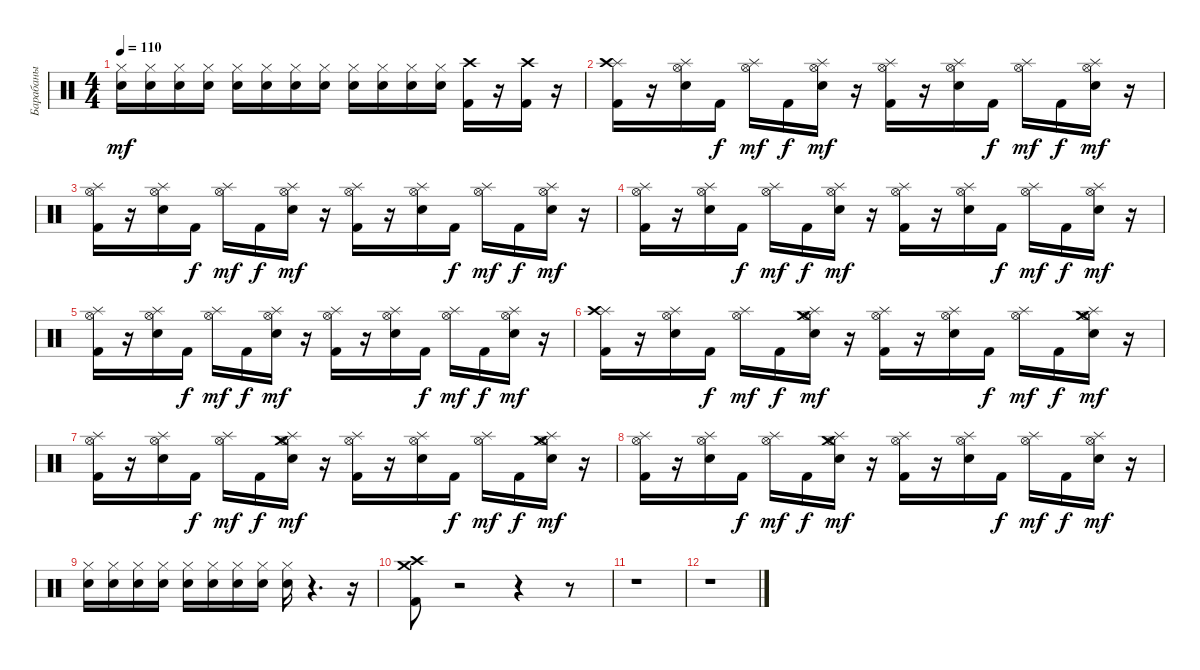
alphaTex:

\track ("Барабаны" "Барабаны") {instrument percussion}
\staff {score}
\articulation defaults
\ts (4 4)
\tempo 110
\clef neutral
\ks c
("Hi-Hat (closed)" "Electric Snare (hit)").16{dy mf} ("Hi-Hat (closed)" "Electric Snare (hit)").16 ("Hi-Hat (closed)" "Electric Snare (hit)").16 ("Hi-Hat (closed)" "Electric Snare (hit)").16 ("Hi-Hat (closed)" "Electric Snare (hit)").16 ("Hi-Hat (closed)" "Electric Snare (hit)").16 ("Hi-Hat (closed)" "Electric Snare (hit)").16 ("Hi-Hat (closed)" "Electric Snare (hit)").16 ("Hi-Hat (closed)" "Electric Snare (hit)").16 ("Hi-Hat (closed)" "Electric Snare (hit)").16 ("Hi-Hat (closed)" "Electric Snare (hit)").16 ("Hi-Hat (closed)" "Electric Snare (hit)").16 ("Crash high (hit)" "Kick (hit) 2").16 r.16 ("Crash high (hit)" "Kick (hit) 2").16 r.16 |
("Splash (hit)" "Crash high (hit)" "Kick (hit) 2").16 r.16 ("Hi-Hat (open)" "Splash (hit)" "Electric Snare (hit)").16 "Kick (hit) 2".16{dy f} ("Hi-Hat (open)" "Splash (hit)").16{dy mf} "Kick (hit) 2".16{dy f} ("Hi-Hat (open)" "Splash (hit)" "Electric Snare (hit)").16{dy mf} r.16 ("Hi-Hat (open)" "Splash (hit)" "Kick (hit) 2").16 r.16 ("Hi-Hat (open)" "Splash (hit)" "Electric Snare (hit)").16 "Kick (hit) 2".16{dy f} ("Hi-Hat (open)" "Splash (hit)").16{dy mf} "Kick (hit) 2".16{dy f} ("Hi-Hat (open)" "Splash (hit)" "Electric Snare (hit)").16{dy mf} r.16 |
("Hi-Hat (open)" "Splash (hit)" "Kick (hit) 2").16 r.16 ("Hi-Hat (open)" "Splash (hit)" "Electric Snare (hit)").16 "Kick (hit) 2".16{dy f} ("Hi-Hat (open)" "Splash (hit)").16{dy mf} "Kick (hit) 2".16{dy f} ("Hi-Hat (open)" "Splash (hit)" "Electric Snare (hit)").16{dy mf} r.16 ("Hi-Hat (open)" "Splash (hit)" "Kick (hit) 2").16 r.16 ("Hi-Hat (open)" "Splash (hit)" "Electric Snare (hit)").16 "Kick (hit) 2".16{dy f} ("Hi-Hat (open)" "Splash (hit)").16{dy mf} "Kick (hit) 2".16{dy f} ("Hi-Hat (open)" "Splash (hit)" "Electric Snare (hit)").16{dy mf} r.16 |
("Hi-Hat (open)" "Splash (hit)" "Kick (hit) 2").16 r.16 ("Hi-Hat (open)" "Splash (hit)" "Electric Snare (hit)").16 "Kick (hit) 2".16{dy f} ("Hi-Hat (open)" "Splash (hit)").16{dy mf} "Kick (hit) 2".16{dy f} ("Hi-Hat (open)" "Splash (hit)" "Electric Snare (hit)").16{dy mf} r.16 ("Hi-Hat (open)" "Splash (hit)" "Kick (hit) 2").16 r.16 ("Hi-Hat (open)" "Splash (hit)" "Electric Snare (hit)").16 "Kick (hit) 2".16{dy f} ("Hi-Hat (open)" "Splash (hit)").16{dy mf} "Kick (hit) 2".16{dy f} ("Hi-Hat (open)" "Splash (hit)" "Electric Snare (hit)").16{dy mf} r.16 |
("Hi-Hat (open)" "Splash (hit)" "Kick (hit) 2").16 r.16 ("Hi-Hat (open)" "Splash (hit)" "Electric Snare (hit)").16 "Kick (hit) 2".16{dy f} ("Hi-Hat (open)" "Splash (hit)").16{dy mf} "Kick (hit) 2".16{dy f} ("Hi-Hat (open)" "Splash (hit)" "Electric Snare (hit)").16{dy mf} r.16 ("Hi-Hat (open)" "Splash (hit)" "Kick (hit) 2").16 r.16 ("Hi-Hat (open)" "Splash (hit)" "Electric Snare (hit)").16 "Kick (hit) 2".16{dy f} ("Hi-Hat (open)" "Splash (hit)").16{dy mf} "Kick (hit) 2".16{dy f} ("Hi-Hat (open)" "Splash (hit)" "Electric Snare (hit)").16{dy mf} r.16 |
("Splash (hit)" "Crash high (hit)" "Kick (hit) 2").16 r.16 ("Hi-Hat (open)" "Splash (hit)" "Electric Snare (hit)").16 "Kick (hit) 2".16{dy f} ("Hi-Hat (open)" "Splash (hit)").16{dy mf} "Kick (hit) 2".16{dy f} ("Crash medium (hit)" "Hi-Hat (open)" "Splash (hit)" "Electric Snare (hit)").16{dy mf} r.16 ("Hi-Hat (open)" "Splash (hit)" "Kick (hit) 2").16 r.16 ("Hi-Hat (open)" "Splash (hit)" "Electric Snare (hit)").16 "Kick (hit) 2".16{dy f} ("Hi-Hat (open)" "Splash (hit)").16{dy mf} "Kick (hit) 2".16{dy f} ("Crash medium (hit)" "Hi-Hat (open)" "Splash (hit)" "Electric Snare (hit)").16{dy mf} r.16 |
("Hi-Hat (open)" "Splash (hit)" "Kick (hit) 2").16 r.16 ("Hi-Hat (open)" "Splash (hit)" "Electric Snare (hit)").16 "Kick (hit) 2".16{dy f} ("Hi-Hat (open)" "Splash (hit)").16{dy mf} "Kick (hit) 2".16{dy f} ("Crash medium (hit)" "Hi-Hat (open)" "Splash (hit)" "Electric Snare (hit)").16{dy mf} r.16 ("Hi-Hat (open)" "Splash (hit)" "Kick (hit) 2").16 r.16 ("Hi-Hat (open)" "Splash (hit)" "Electric Snare (hit)").16 "Kick (hit) 2".16{dy f} ("Hi-Hat (open)" "Splash (hit)").16{dy mf} "Kick (hit) 2".16{dy f} ("Crash medium (hit)" "Hi-Hat (open)" "Splash (hit)" "Electric Snare (hit)").16{dy mf} r.16 |
("Hi-Hat (open)" "Splash (hit)" "Kick (hit) 2").16 r.16 ("Hi-Hat (open)" "Splash (hit)" "Electric Snare (hit)").16 "Kick (hit) 2".16{dy f} ("Hi-Hat (open)" "Splash (hit)").16{dy mf} "Kick (hit) 2".16{dy f} ("Crash medium (hit)" "Hi-Hat (open)" "Splash (hit)" "Electric Snare (hit)").16{dy mf} r.16 ("Hi-Hat (open)" "Splash (hit)" "Kick (hit) 2").16 r.16 ("Hi-Hat (open)" "Splash (hit)" "Electric Snare (hit)").16 "Kick (hit) 2".16{dy f} ("Hi-Hat (open)" "Splash (hit)").16{dy mf} "Kick (hit) 2".16{dy f} ("Hi-Hat (open)" "Splash (hit)" "Electric Snare (hit)").16{dy mf} r.16 |
("Hi-Hat (closed)" "Electric Snare (hit)").16 ("Hi-Hat (closed)" "Electric Snare (hit)").16 ("Hi-Hat (closed)" "Electric Snare (hit)").16 ("Hi-Hat (closed)" "Electric Snare (hit)").16 ("Hi-Hat (closed)" "Electric Snare (hit)").16 ("Hi-Hat (closed)" "Electric Snare (hit)").16 ("Hi-Hat (closed)" "Electric Snare (hit)").16 ("Hi-Hat (closed)" "Electric Snare (hit)").16 ("Hi-Hat (closed)" "Electric Snare (hit)").16 r.4{d} r.16 |
("Crash high (hit)" "Crash medium (hit)" "Kick (hit) 2").8 r.2 r.4 r.8 |
r.1 |
r.1
